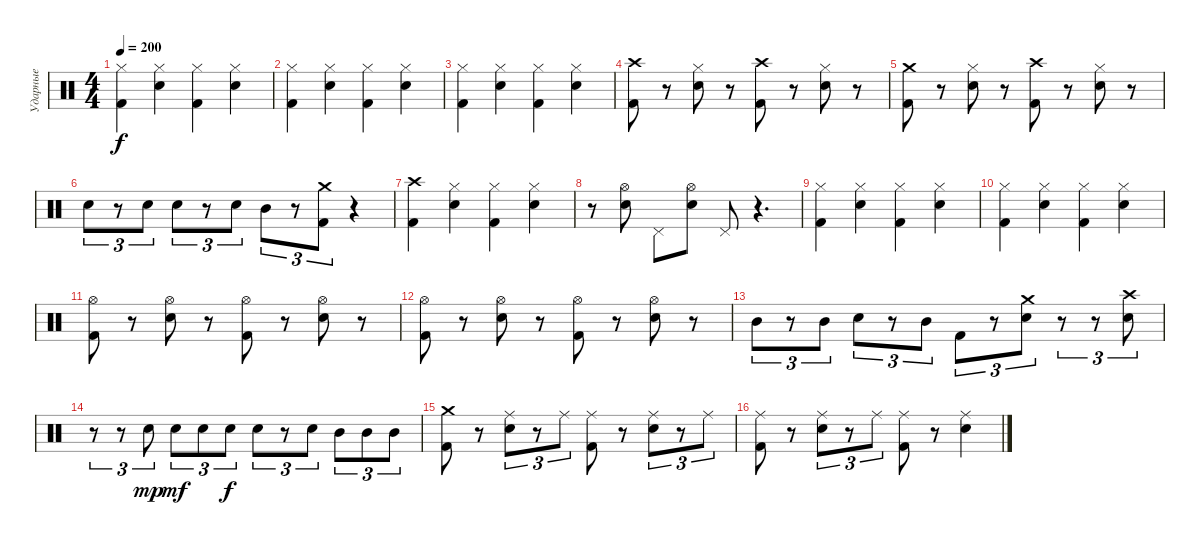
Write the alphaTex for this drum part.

\track ("Ударные" "Ударные") {instrument percussion}
\staff {score}
\articulation defaults
\ts (4 4)
\tempo 200
\clef neutral
\ks c
("Hi-Hat (closed)" "Kick (hit) 2").4{dy f} ("Hi-Hat (closed)" "Electric Snare (hit)").4 ("Hi-Hat (closed)" "Kick (hit) 2").4 ("Hi-Hat (closed)" "Electric Snare (hit)").4 |
("Hi-Hat (closed)" "Kick (hit) 2").4 ("Hi-Hat (closed)" "Electric Snare (hit)").4 ("Hi-Hat (closed)" "Kick (hit) 2").4 ("Hi-Hat (closed)" "Electric Snare (hit)").4 |
("Hi-Hat (closed)" "Kick (hit) 2").4 ("Hi-Hat (closed)" "Electric Snare (hit)").4 ("Hi-Hat (closed)" "Kick (hit) 2").4 ("Hi-Hat (closed)" "Electric Snare (hit)").4 |
("Crash high (hit)" "Kick (hit) 2").8 r.8 ("Hi-Hat (closed)" "Electric Snare (hit)").8 r.8 ("Crash high (hit)" "Kick (hit) 2").8 r.8 ("Hi-Hat (closed)" "Electric Snare (hit)").8 r.8 |
("Crash medium (hit)" "Kick (hit) 2").8 r.8 ("Hi-Hat (closed)" "Electric Snare (hit)").8 r.8 ("Crash high (hit)" "Kick (hit) 2").8 r.8 ("Hi-Hat (closed)" "Electric Snare (hit)").8 r.8 |
"Electric Snare (hit)".8{tu (3 2)} r.8{tu (3 2)} "Electric Snare (hit)".8{tu (3 2)} "Electric Snare (hit)".8{tu (3 2)} r.8{tu (3 2)} "Electric Snare (hit)".8{tu (3 2)} "Mid Tom (hit)".8{tu (3 2)} r.8{tu (3 2)} ("Crash medium (hit)" "Kick (hit) 2").8{tu (3 2)} r.4 |
("Crash high (hit)" "Kick (hit) 2").4 ("Hi-Hat (closed)" "Electric Snare (hit)").4 ("Hi-Hat (closed)" "Kick (hit) 2").4 ("Hi-Hat (closed)" "Electric Snare (hit)").4 |
r.8 ("Hi-Hat (open)" "Electric Snare (hit)").8 "Pedal Hi-Hat (hit)".8 ("Hi-Hat (open)" "Electric Snare (hit)").8 "Pedal Hi-Hat (hit)".8 r.4{d} |
("Hi-Hat (closed)" "Kick (hit) 2").4 ("Hi-Hat (closed)" "Electric Snare (hit)").4 ("Hi-Hat (closed)" "Kick (hit) 2").4 ("Hi-Hat (closed)" "Electric Snare (hit)").4 |
("Hi-Hat (closed)" "Kick (hit) 2").4 ("Hi-Hat (closed)" "Electric Snare (hit)").4 ("Hi-Hat (closed)" "Kick (hit) 2").4 ("Hi-Hat (closed)" "Electric Snare (hit)").4 |
("Hi-Hat (open)" "Kick (hit) 2").8 r.8 ("Hi-Hat (open)" "Electric Snare (hit)").8 r.8 ("Hi-Hat (open)" "Kick (hit) 2").8 r.8 ("Hi-Hat (open)" "Electric Snare (hit)").8 r.8 |
("Hi-Hat (open)" "Kick (hit) 2").8 r.8 ("Hi-Hat (open)" "Electric Snare (hit)").8 r.8 ("Hi-Hat (open)" "Kick (hit) 2").8 r.8 ("Hi-Hat (open)" "Electric Snare (hit)").8 r.8 |
"Mid Tom (hit)".8{tu (3 2)} r.8{tu (3 2)} "Mid Tom (hit)".8{tu (3 2)} "Electric Snare (hit)".8{tu (3 2)} r.8{tu (3 2)} "Mid Tom (hit)".8{tu (3 2)} "Kick (hit) 2".8{tu (3 2)} r.8{tu (3 2)} ("Crash medium (hit)" "Electric Snare (hit)").8{tu (3 2)} r.8{tu (3 2)} r.8{tu (3 2)} ("Crash high (hit)" "Electric Snare (hit)").8{tu (3 2)} |
r.8{tu (3 2)} r.8{tu (3 2)} "Electric Snare (hit)".8{tu (3 2) dy mp} "Electric Snare (hit)".8{tu (3 2) dy mf} "Electric Snare (hit)".8{tu (3 2)} "Electric Snare (hit)".8{tu (3 2) dy f} "Electric Snare (hit)".8{tu (3 2)} r.8{tu (3 2)} "Electric Snare (hit)".8{tu (3 2)} "Mid Tom (hit)".8{tu (3 2)} "Mid Tom (hit)".8{tu (3 2)} "Mid Tom (hit)".8{tu (3 2)} |
("Crash medium (hit)" "Kick (hit) 2").8 r.8 ("Ride (middle)" "Electric Snare (hit)").8{tu (3 2)} r.8{tu (3 2)} "Ride (middle)".8{tu (3 2)} ("Ride (middle)" "Kick (hit) 2").8 r.8 ("Ride (middle)" "Electric Snare (hit)").8{tu (3 2)} r.8{tu (3 2)} "Ride (middle)".8{tu (3 2)} |
("Ride (middle)" "Kick (hit) 2").8 r.8 ("Ride (middle)" "Electric Snare (hit)").8{tu (3 2)} r.8{tu (3 2)} "Ride (middle)".8{tu (3 2)} ("Ride (middle)" "Kick (hit) 2").8 r.8 ("Ride (middle)" "Electric Snare (hit)").4
